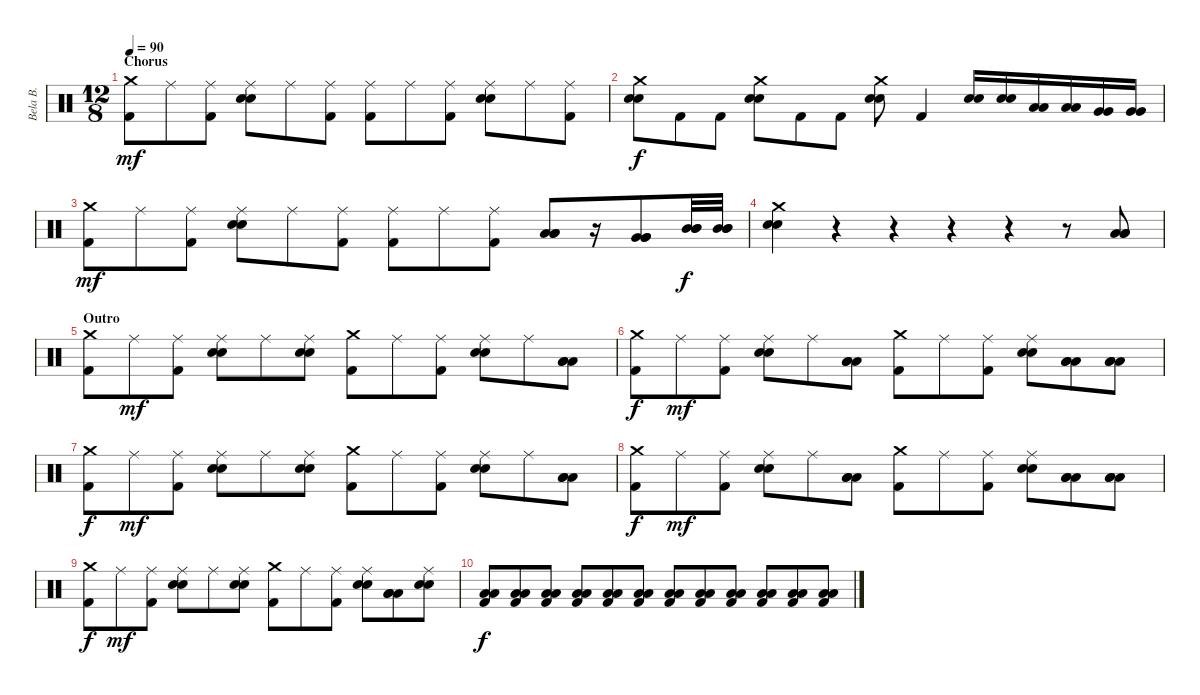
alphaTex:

\track ("Bela B." "Bela B.") {instrument percussion}
\staff {score}
\articulation defaults
\ts (12 8)
\section ("" "Chorus")
\tempo 90
\clef neutral
\ks c
("Crash medium (hit)" "Kick (hit) 2").8{dy mf} "Ride (middle)".8 ("Ride (middle)" "Kick (hit) 2").8 ("Ride (middle)" "Electric Snare (hit)" "Snare (hit) 2").8 "Ride (middle)".8 ("Ride (middle)" "Kick (hit) 2").8 ("Ride (middle)" "Kick (hit) 2").8 "Ride (middle)".8 ("Ride (middle)" "Kick (hit) 2").8 ("Ride (middle)" "Electric Snare (hit)" "Snare (hit) 2").8 "Ride (middle)".8 ("Ride (middle)" "Kick (hit) 2").8 |
("Crash medium (hit)" "Electric Snare (hit)" "Snare (hit) 2").8{dy f} "Kick (hit) 2".8 "Kick (hit) 2".8 ("Crash medium (hit)" "Electric Snare (hit)" "Snare (hit) 2").8 "Kick (hit) 2".8 "Kick (hit) 2".8 ("Crash medium (hit)" "Electric Snare (hit)" "Snare (hit) 2").8 "Kick (hit) 2".4 ("Electric Snare (hit)" "Snare (hit) 2").16 ("Electric Snare (hit)" "Snare (hit) 2").16 ("Low Tom (hit)" "Low Tom (hit)").16 ("Low Tom (hit)" "Low Tom (hit)").16 ("Very Low Tom (hit)" "Very Low Tom (hit)").16 ("Very Low Tom (hit)" "Very Low Tom (hit)").16 |
("Crash medium (hit)" "Kick (hit) 2").8{dy mf} "Ride (middle)".8 ("Ride (middle)" "Kick (hit) 2").8 ("Ride (middle)" "Electric Snare (hit)" "Snare (hit) 2").8 "Ride (middle)".8 ("Ride (middle)" "Kick (hit) 2").8 ("Ride (middle)" "Kick (hit) 2").8 "Ride (middle)".8 ("Ride (middle)" "Kick (hit) 2").8 ("Low Tom (hit)" "Low Tom (hit)" "Low Tom (hit)").8 r.16 ("Very Low Tom (hit)" "Very Low Tom (hit)" "Very Low Tom (hit)").8 ("Mid Tom (hit)" "Mid Tom (hit)" "Mid Tom (hit)").32{dy f} ("Mid Tom (hit)" "Mid Tom (hit)" "Mid Tom (hit)").32 |
("Crash medium (hit)" "Electric Snare (hit)" "Snare (hit) 2").4 r.4 r.4 r.4 r.4 r.8 ("Low Tom (hit)" "Low Tom (hit)" "Low Tom (hit)").8 |
\section ("" "Outro")
("Crash medium (hit)" "Kick (hit) 2").8 "Ride (middle)".8{dy mf} ("Ride (middle)" "Kick (hit) 2").8 ("Ride (middle)" "Electric Snare (hit)" "Snare (hit) 2").8 "Ride (middle)".8 ("Ride (middle)" "Electric Snare (hit)" "Snare (hit) 2").8 ("Crash medium (hit)" "Kick (hit) 2").8 "Ride (middle)".8 ("Ride (middle)" "Kick (hit) 2").8 ("Ride (middle)" "Electric Snare (hit)" "Snare (hit) 2").8 "Ride (middle)".8 ("Low Tom (hit)" "Low Tom (hit)" "Low Tom (hit)").8 |
("Crash medium (hit)" "Kick (hit) 2").8{dy f} "Ride (middle)".8{dy mf} ("Ride (middle)" "Kick (hit) 2").8 ("Ride (middle)" "Electric Snare (hit)" "Snare (hit) 2").8 "Ride (middle)".8 ("Low Tom (hit)" "Low Tom (hit)" "Low Tom (hit)").8 ("Crash medium (hit)" "Kick (hit) 2").8 "Ride (middle)".8 ("Ride (middle)" "Kick (hit) 2").8 ("Ride (middle)" "Electric Snare (hit)" "Snare (hit) 2").8 ("Low Floor Tom (hit)" "Low Floor Tom (hit)" "Low Floor Tom (hit)").8 ("Low Tom (hit)" "Low Tom (hit)" "Low Tom (hit)").8 |
("Crash medium (hit)" "Kick (hit) 2").8{dy f} "Ride (middle)".8{dy mf} ("Ride (middle)" "Kick (hit) 2").8 ("Ride (middle)" "Electric Snare (hit)" "Snare (hit) 2").8 "Ride (middle)".8 ("Ride (middle)" "Electric Snare (hit)" "Snare (hit) 2").8 ("Crash medium (hit)" "Kick (hit) 2").8 "Ride (middle)".8 ("Ride (middle)" "Kick (hit) 2").8 ("Ride (middle)" "Electric Snare (hit)" "Snare (hit) 2").8 "Ride (middle)".8 ("Low Tom (hit)" "Low Tom (hit)" "Low Tom (hit)").8 |
("Crash medium (hit)" "Kick (hit) 2").8{dy f} "Ride (middle)".8{dy mf} ("Ride (middle)" "Kick (hit) 2").8 ("Ride (middle)" "Electric Snare (hit)" "Snare (hit) 2").8 "Ride (middle)".8 ("Low Tom (hit)" "Low Tom (hit)" "Low Tom (hit)").8 ("Crash medium (hit)" "Kick (hit) 2").8 "Ride (middle)".8 ("Ride (middle)" "Kick (hit) 2").8 ("Ride (middle)" "Electric Snare (hit)" "Snare (hit) 2").8 ("Low Floor Tom (hit)" "Low Floor Tom (hit)" "Low Floor Tom (hit)").8 ("Low Tom (hit)" "Low Tom (hit)" "Low Tom (hit)").8 |
("Crash medium (hit)" "Kick (hit) 2").8{dy f} "Ride (middle)".8{dy mf} ("Ride (middle)" "Kick (hit) 2").8 ("Ride (middle)" "Electric Snare (hit)" "Snare (hit) 2").8 "Ride (middle)".8 ("Ride (middle)" "Electric Snare (hit)" "Snare (hit) 2").8 ("Crash medium (hit)" "Kick (hit) 2").8 "Ride (middle)".8 ("Ride (middle)" "Kick (hit) 2").8 ("Ride (middle)" "Electric Snare (hit)" "Snare (hit) 2").8 ("Low Tom (hit)" "Low Tom (hit)" "Low Tom (hit)").8 ("Ride (middle)" "Electric Snare (hit)" "Snare (hit) 2").8 |
("Low Tom (hit)" "Low Tom (hit)" "Kick (hit) 2").8{dy f} ("Low Tom (hit)" "Low Tom (hit)" "Kick (hit) 2").8 ("Low Tom (hit)" "Low Tom (hit)" "Kick (hit) 2").8 ("Low Tom (hit)" "Low Tom (hit)" "Kick (hit) 2").8 ("Low Tom (hit)" "Low Tom (hit)" "Kick (hit) 2").8 ("Low Tom (hit)" "Low Tom (hit)" "Kick (hit) 2").8 ("Low Tom (hit)" "Low Tom (hit)" "Kick (hit) 2").8 ("Low Tom (hit)" "Low Tom (hit)" "Kick (hit) 2").8 ("Low Tom (hit)" "Low Tom (hit)" "Kick (hit) 2").8 ("Low Tom (hit)" "Low Tom (hit)" "Kick (hit) 2").8 ("Low Tom (hit)" "Low Tom (hit)" "Kick (hit) 2").8 ("Low Tom (hit)" "Low Tom (hit)" "Kick (hit) 2").8
